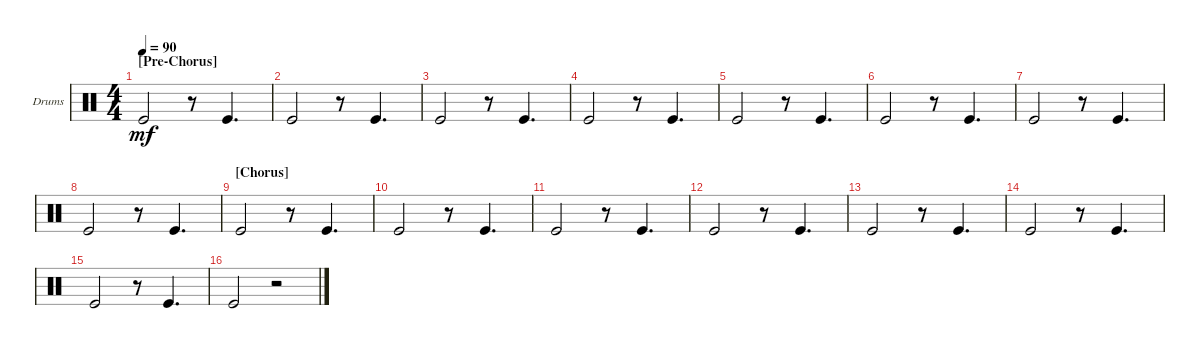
\bracketExtendMode groupsimilarinstruments
\firstSystemTrackNameOrientation horizontal
\otherSystemsTrackNameOrientation horizontal
\track ("Beat" "Drums") {instrument percussion}
\staff {score}
\articulation defaults
\ts (4 4)
\section ("" "[Pre-Chorus]")
\tempo 90
\clef neutral
\scale
0.322034
\ks c "Kick (hit)".2{dy mf}
r.8 "Kick (hit)".4{d} |
\scale
0.333333 "Kick (hit)".2 r.8 "Kick (hit)".4{d} |
\scale
0.333333 "Kick (hit)".2 r.8 "Kick (hit)".4{d} |
\scale
0.333333 "Kick (hit)".2 r.8 "Kick (hit)".4{d} |
\scale
0.333333 "Kick (hit)".2 r.8 "Kick (hit)".4{d} |
\scale
0.333333 "Kick (hit)".2 r.8 "Kick (hit)".4{d} |
\scale
0.333333 "Kick (hit)".2 r.8 "Kick (hit)".4{d} |
\scale
0.333333 "Kick (hit)".2 r.8 "Kick (hit)".4{d} |
\section ("" "[Chorus]")
\scale
0.333333 "Kick (hit)".2 r.8 "Kick (hit)".4{d} |
\scale
0.333333 "Kick (hit)".2 r.8 "Kick (hit)".4{d} |
\scale
0.333333 "Kick (hit)".2 r.8 "Kick (hit)".4{d} |
\scale
0.333333 "Kick (hit)".2 r.8 "Kick (hit)".4{d} |
\scale
0.333333 "Kick (hit)".2 r.8 "Kick (hit)".4{d} |
"Kick (hit)".2 r.8 "Kick (hit)".4{d} |
"Kick (hit)".2 r.8 "Kick (hit)".4{d} |
"Kick (hit)".2 r.2
